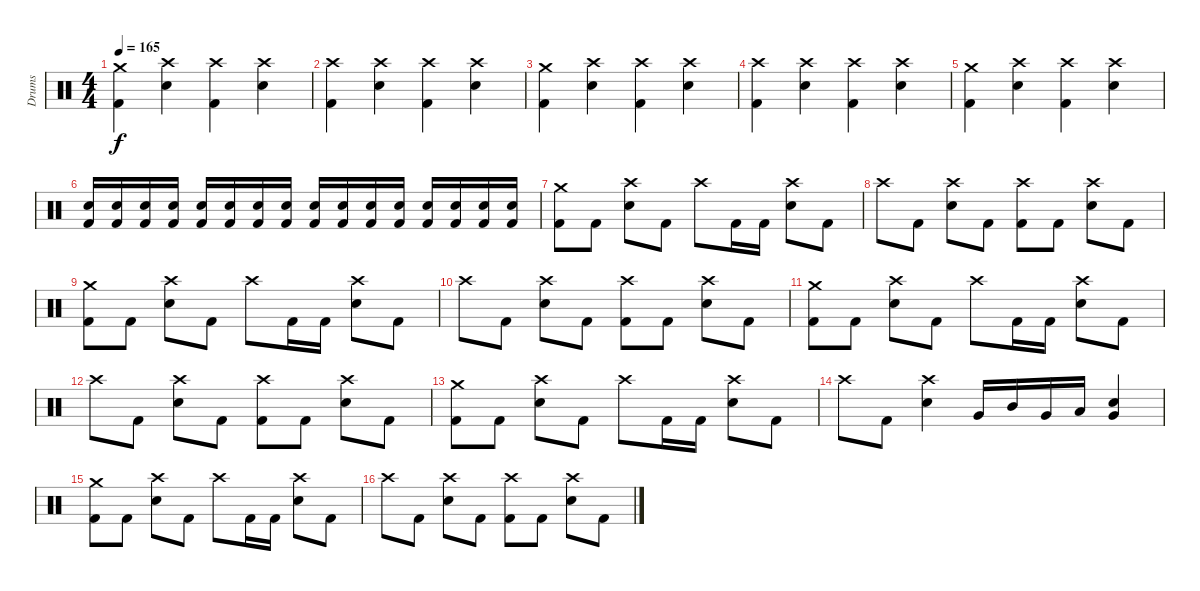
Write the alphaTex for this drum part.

\track ("Drums" "Drums") {instrument percussion}
\staff {score}
\articulation defaults
\ts (4 4)
\tempo 165
\clef neutral
\ks c
("Crash medium (hit)" "Kick (hit) 2").4{dy f} ("Crash high (hit)" "Electric Snare (hit)").4 ("Crash high (hit)" "Kick (hit) 2").4 ("Crash high (hit)" "Electric Snare (hit)").4 |
("Crash high (hit)" "Kick (hit) 2").4 ("Crash high (hit)" "Electric Snare (hit)").4 ("Crash high (hit)" "Kick (hit) 2").4 ("Crash high (hit)" "Electric Snare (hit)").4 |
("Crash medium (hit)" "Kick (hit) 2").4 ("Crash high (hit)" "Electric Snare (hit)").4 ("Crash high (hit)" "Kick (hit) 2").4 ("Crash high (hit)" "Electric Snare (hit)").4 |
("Crash high (hit)" "Kick (hit) 2").4 ("Crash high (hit)" "Electric Snare (hit)").4 ("Crash high (hit)" "Kick (hit) 2").4 ("Crash high (hit)" "Electric Snare (hit)").4 |
("Crash medium (hit)" "Kick (hit) 2").4 ("Crash high (hit)" "Electric Snare (hit)").4 ("Crash high (hit)" "Kick (hit) 2").4 ("Crash high (hit)" "Electric Snare (hit)").4 |
("Electric Snare (hit)" "Kick (hit) 2").16 ("Electric Snare (hit)" "Kick (hit) 2").16 ("Electric Snare (hit)" "Kick (hit) 2").16 ("Electric Snare (hit)" "Kick (hit) 2").16 ("Electric Snare (hit)" "Kick (hit) 2").16 ("Electric Snare (hit)" "Kick (hit) 2").16 ("Electric Snare (hit)" "Kick (hit) 2").16 ("Electric Snare (hit)" "Kick (hit) 2").16 ("Electric Snare (hit)" "Kick (hit) 2").16 ("Electric Snare (hit)" "Kick (hit) 2").16 ("Electric Snare (hit)" "Kick (hit) 2").16 ("Electric Snare (hit)" "Kick (hit) 2").16 ("Electric Snare (hit)" "Kick (hit) 2").16 ("Electric Snare (hit)" "Kick (hit) 2").16 ("Electric Snare (hit)" "Kick (hit) 2").16 ("Electric Snare (hit)" "Kick (hit) 2").16 |
("Crash medium (hit)" "Kick (hit) 2").8 "Kick (hit) 2".8 ("Crash high (hit)" "Electric Snare (hit)").8 "Kick (hit) 2".8 "Crash high (hit)".8 "Kick (hit) 2".16 "Kick (hit) 2".16 ("Crash high (hit)" "Electric Snare (hit)").8 "Kick (hit) 2".8 |
"Crash high (hit)".8 "Kick (hit) 2".8 ("Crash high (hit)" "Electric Snare (hit)").8 "Kick (hit) 2".8 ("Crash high (hit)" "Kick (hit) 2").8 "Kick (hit) 2".8 ("Crash high (hit)" "Electric Snare (hit)").8 "Kick (hit) 2".8 |
("Crash medium (hit)" "Kick (hit) 2").8 "Kick (hit) 2".8 ("Crash high (hit)" "Electric Snare (hit)").8 "Kick (hit) 2".8 "Crash high (hit)".8 "Kick (hit) 2".16 "Kick (hit) 2".16 ("Crash high (hit)" "Electric Snare (hit)").8 "Kick (hit) 2".8 |
"Crash high (hit)".8 "Kick (hit) 2".8 ("Crash high (hit)" "Electric Snare (hit)").8 "Kick (hit) 2".8 ("Crash high (hit)" "Kick (hit) 2").8 "Kick (hit) 2".8 ("Crash high (hit)" "Electric Snare (hit)").8 "Kick (hit) 2".8 |
("Crash medium (hit)" "Kick (hit) 2").8 "Kick (hit) 2".8 ("Crash high (hit)" "Electric Snare (hit)").8 "Kick (hit) 2".8 "Crash high (hit)".8 "Kick (hit) 2".16 "Kick (hit) 2".16 ("Crash high (hit)" "Electric Snare (hit)").8 "Kick (hit) 2".8 |
"Crash high (hit)".8 "Kick (hit) 2".8 ("Crash high (hit)" "Electric Snare (hit)").8 "Kick (hit) 2".8 ("Crash high (hit)" "Kick (hit) 2").8 "Kick (hit) 2".8 ("Crash high (hit)" "Electric Snare (hit)").8 "Kick (hit) 2".8 |
("Crash medium (hit)" "Kick (hit) 2").8 "Kick (hit) 2".8 ("Crash high (hit)" "Electric Snare (hit)").8 "Kick (hit) 2".8 "Crash high (hit)".8 "Kick (hit) 2".16 "Kick (hit) 2".16 ("Crash high (hit)" "Electric Snare (hit)").8 "Kick (hit) 2".8 |
"Crash high (hit)".8 "Kick (hit) 2".8 ("Crash high (hit)" "Electric Snare (hit)").4 "Very Low Tom (hit)".16 "Mid Tom (hit)".16 "Very Low Tom (hit)".16 "Low Floor Tom (hit)".16 ("Very Low Tom (hit)" "Electric Snare (hit)").4 |
("Crash medium (hit)" "Kick (hit) 2").8 "Kick (hit) 2".8 ("Crash high (hit)" "Electric Snare (hit)").8 "Kick (hit) 2".8 "Crash high (hit)".8 "Kick (hit) 2".16 "Kick (hit) 2".16 ("Crash high (hit)" "Electric Snare (hit)").8 "Kick (hit) 2".8 |
"Crash high (hit)".8 "Kick (hit) 2".8 ("Crash high (hit)" "Electric Snare (hit)").8 "Kick (hit) 2".8 ("Crash high (hit)" "Kick (hit) 2").8 "Kick (hit) 2".8 ("Crash high (hit)" "Electric Snare (hit)").8 "Kick (hit) 2".8
